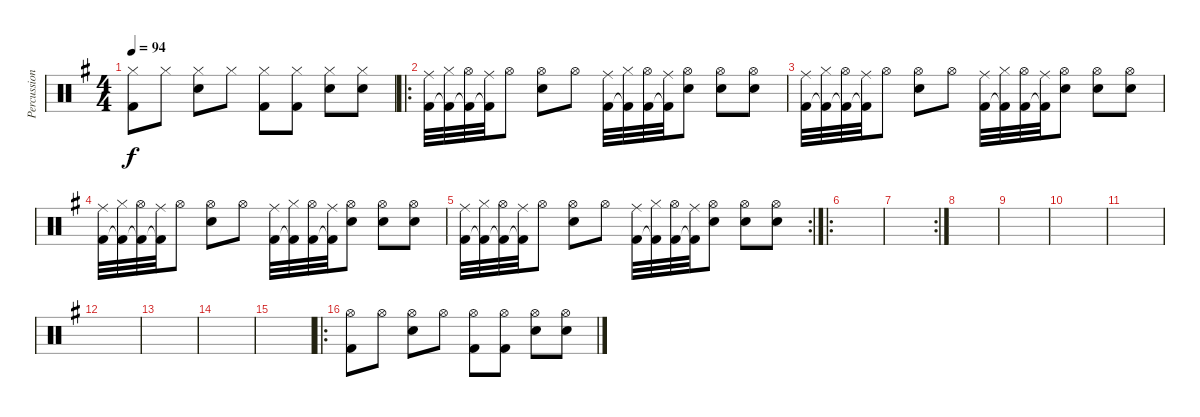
\track ("Percussions" "Percussion") {instrument percussion}
\staff {score}
\articulation defaults
\ts (4 4)
\tempo 94
\clef neutral
\ks g
("Hi-Hat (closed)" "Kick (hit) 2").8{dy f} "Hi-Hat (closed)".8 ("Hi-Hat (closed)" "Snare (hit) 2").8 "Hi-Hat (closed)".8 ("Hi-Hat (closed)" "Kick (hit) 2").8 ("Hi-Hat (closed)" "Kick (hit) 2").8 ("Hi-Hat (closed)" "Snare (hit) 2").8 ("Hi-Hat (closed)" "Snare (hit) 2").8 |
\ro
("Ride (middle)" "Kick (hit) 2").32 ("Hi-Hat (closed)" "Kick (hit) 2"{t}).32 ("Hi-Hat (open)" "Kick (hit) 2"{t}).32 ("Ride (middle)" "Kick (hit) 2"{t}).32 "Hi-Hat (open)".8 ("Hi-Hat (open)" "Snare (hit) 2").8 "Hi-Hat (open)".8 ("Ride (middle)" "Kick (hit) 2").32 ("Hi-Hat (closed)" "Kick (hit) 2"{t}).32 ("Hi-Hat (open)" "Kick (hit) 2").32 ("Ride (middle)" "Kick (hit) 2"{t}).32 ("Hi-Hat (open)" "Snare (hit) 2").8 ("Hi-Hat (open)" "Snare (hit) 2").8 ("Hi-Hat (open)" "Snare (hit) 2").8 |
("Ride (middle)" "Kick (hit) 2").32 ("Hi-Hat (closed)" "Kick (hit) 2"{t}).32 ("Hi-Hat (open)" "Kick (hit) 2"{t}).32 ("Ride (middle)" "Kick (hit) 2"{t}).32 "Hi-Hat (open)".8 ("Hi-Hat (open)" "Snare (hit) 2").8 "Hi-Hat (open)".8 ("Ride (middle)" "Kick (hit) 2").32 ("Hi-Hat (closed)" "Kick (hit) 2"{t}).32 ("Hi-Hat (open)" "Kick (hit) 2").32 ("Ride (middle)" "Kick (hit) 2"{t}).32 ("Hi-Hat (open)" "Snare (hit) 2").8 ("Hi-Hat (open)" "Snare (hit) 2").8 ("Hi-Hat (open)" "Snare (hit) 2").8 |
("Ride (middle)" "Kick (hit) 2").32 ("Hi-Hat (closed)" "Kick (hit) 2"{t}).32 ("Hi-Hat (open)" "Kick (hit) 2"{t}).32 ("Ride (middle)" "Kick (hit) 2"{t}).32 "Hi-Hat (open)".8 ("Hi-Hat (open)" "Snare (hit) 2").8 "Hi-Hat (open)".8 ("Ride (middle)" "Kick (hit) 2").32 ("Hi-Hat (closed)" "Kick (hit) 2"{t}).32 ("Hi-Hat (open)" "Kick (hit) 2").32 ("Ride (middle)" "Kick (hit) 2"{t}).32 ("Hi-Hat (open)" "Snare (hit) 2").8 ("Hi-Hat (open)" "Snare (hit) 2").8 ("Hi-Hat (open)" "Snare (hit) 2").8 |
\rc 2
("Ride (middle)" "Kick (hit) 2").32 ("Hi-Hat (closed)" "Kick (hit) 2"{t}).32 ("Hi-Hat (open)" "Kick (hit) 2"{t}).32 ("Ride (middle)" "Kick (hit) 2"{t}).32 "Hi-Hat (open)".8 ("Hi-Hat (open)" "Snare (hit) 2").8 "Hi-Hat (open)".8 ("Ride (middle)" "Kick (hit) 2").32 ("Hi-Hat (closed)" "Kick (hit) 2"{t}).32 ("Hi-Hat (open)" "Kick (hit) 2").32 ("Ride (middle)" "Kick (hit) 2"{t}).32 ("Hi-Hat (open)" "Snare (hit) 2").8 ("Hi-Hat (open)" "Snare (hit) 2").8 ("Hi-Hat (open)" "Snare (hit) 2").8 |
\ro
|
\rc 2
|
|
|
|
|
|
|
|
|
\ro
("Hi-Hat (open)" "Kick (hit) 2").8 "Hi-Hat (open)".8 ("Hi-Hat (open)" "Snare (hit) 2").8 "Hi-Hat (open)".8 ("Hi-Hat (open)" "Kick (hit) 2").8 ("Hi-Hat (open)" "Kick (hit) 2").8 ("Hi-Hat (open)" "Snare (hit) 2").8 ("Hi-Hat (open)" "Snare (hit) 2").8
